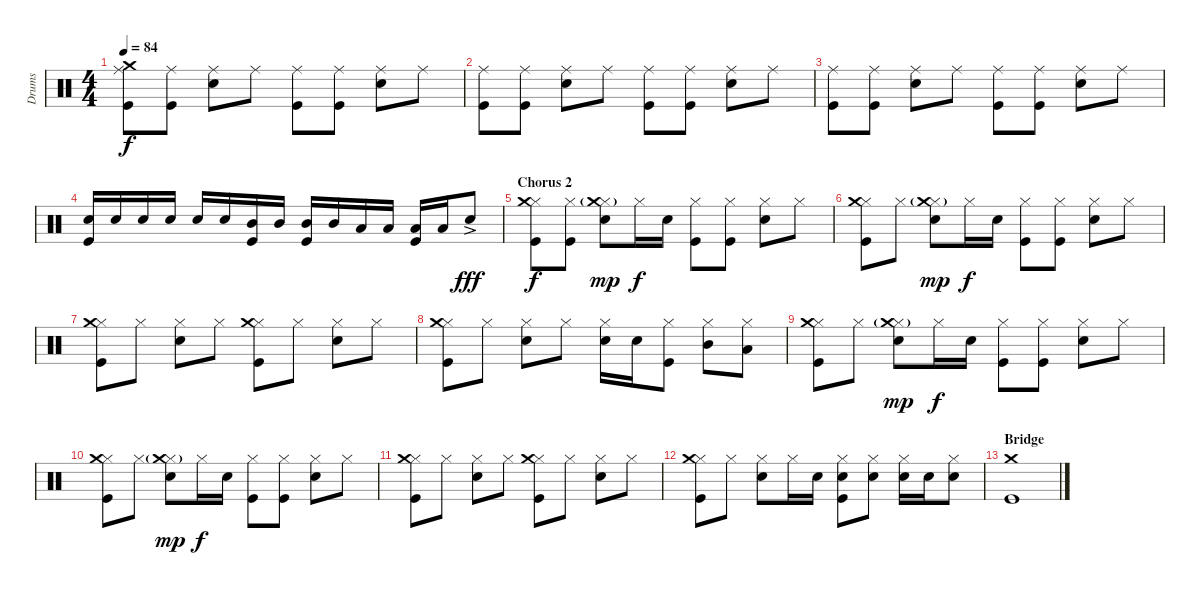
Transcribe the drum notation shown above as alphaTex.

\track ("Drums" "Drums") {instrument percussion}
\staff {score}
\articulation defaults
\ts (4 4)
\tempo 84
\clef neutral
\ks c
("Ride (middle)" "Crash medium (hit)" "Kick (hit)").8{dy f} ("Ride (middle)" "Kick (hit)").8 ("Ride (middle)" "Snare (hit) 2").8 "Ride (middle)".8 ("Ride (middle)" "Kick (hit)").8 ("Ride (middle)" "Kick (hit)").8 ("Ride (middle)" "Snare (hit) 2").8 "Ride (middle)".8 |
("Ride (middle)" "Kick (hit)").8 ("Ride (middle)" "Kick (hit)").8 ("Ride (middle)" "Snare (hit) 2").8 "Ride (middle)".8 ("Ride (middle)" "Kick (hit)").8 ("Ride (middle)" "Kick (hit)").8 ("Ride (middle)" "Snare (hit) 2").8 "Ride (middle)".8 |
("Ride (middle)" "Kick (hit)").8 ("Ride (middle)" "Kick (hit)").8 ("Ride (middle)" "Snare (hit) 2").8 "Ride (middle)".8 ("Ride (middle)" "Kick (hit)").8 ("Ride (middle)" "Kick (hit)").8 ("Ride (middle)" "Snare (hit) 2").8 "Ride (middle)".8 |
("Snare (hit) 2" "Kick (hit)").16 "Snare (hit) 2".16 "Snare (hit) 2".16 "Snare (hit) 2".16 "Snare (hit) 2".16 "Snare (hit) 2".16 ("Mid Tom (hit)" "Kick (hit)").16 "Mid Tom (hit)".16 ("Mid Tom (hit)" "Kick (hit)").16 "Mid Tom (hit)".16 "Low Tom (hit)".16 "Low Tom (hit)".16 ("Low Tom (hit)" "Kick (hit)").16 "Low Tom (hit)".16 "Snare (hit) 2"{ac}.8{dy fff} |
\section ("" "Chorus 2")
("Hi-Hat (closed)" "Crash medium (hit)" "Kick (hit)").8{dy f} ("Hi-Hat (closed)" "Kick (hit)").8 ("Hi-Hat (closed)" "Crash medium (hit)"{g} "Snare (hit) 2").8{dy mp} "Hi-Hat (closed)".16{dy f} "Snare (hit) 2".16 ("Hi-Hat (closed)" "Kick (hit)").8 ("Hi-Hat (closed)" "Kick (hit)").8 ("Hi-Hat (closed)" "Snare (hit) 2").8 "Hi-Hat (closed)".8 |
("Hi-Hat (closed)" "Crash medium (hit)" "Kick (hit)").8 "Hi-Hat (closed)".8 ("Hi-Hat (closed)" "Crash medium (hit)"{g} "Snare (hit) 2").8{dy mp} "Hi-Hat (closed)".16{dy f} "Snare (hit) 2".16 ("Hi-Hat (closed)" "Kick (hit)").8 ("Hi-Hat (closed)" "Kick (hit)").8 ("Hi-Hat (closed)" "Snare (hit) 2").8 "Hi-Hat (closed)".8 |
("Hi-Hat (closed)" "Crash medium (hit)" "Kick (hit)").8 "Hi-Hat (closed)".8 ("Hi-Hat (closed)" "Snare (hit) 2").8 "Hi-Hat (closed)".8 ("Hi-Hat (closed)" "Crash medium (hit)" "Kick (hit)").8 "Hi-Hat (closed)".8 ("Hi-Hat (closed)" "Snare (hit) 2").8 "Hi-Hat (closed)".8 |
("Hi-Hat (closed)" "Crash medium (hit)" "Kick (hit)").8 "Hi-Hat (closed)".8 ("Hi-Hat (closed)" "Snare (hit) 2").8 "Hi-Hat (closed)".8 ("Hi-Hat (closed)" "Snare (hit) 2").16 "Snare (hit) 2".16 ("Hi-Hat (closed)" "Kick (hit)").8 ("Hi-Hat (closed)" "Mid Tom (hit)").8 ("Hi-Hat (closed)" "Low Tom (hit)").8 |
("Hi-Hat (closed)" "Crash medium (hit)" "Kick (hit)").8 "Hi-Hat (closed)".8 ("Hi-Hat (closed)" "Crash medium (hit)"{g} "Snare (hit) 2").8{dy mp} "Hi-Hat (closed)".16{dy f} "Snare (hit) 2".16 ("Hi-Hat (closed)" "Kick (hit)").8 ("Hi-Hat (closed)" "Kick (hit)").8 ("Hi-Hat (closed)" "Snare (hit) 2").8 "Hi-Hat (closed)".8 |
("Hi-Hat (closed)" "Crash medium (hit)" "Kick (hit)").8 "Hi-Hat (closed)".8 ("Hi-Hat (closed)" "Crash medium (hit)"{g} "Snare (hit) 2").8{dy mp} "Hi-Hat (closed)".16{dy f} "Snare (hit) 2".16 ("Hi-Hat (closed)" "Kick (hit)").8 ("Hi-Hat (closed)" "Kick (hit)").8 ("Hi-Hat (closed)" "Snare (hit) 2").8 "Hi-Hat (closed)".8 |
("Hi-Hat (closed)" "Crash medium (hit)" "Kick (hit)").8 "Hi-Hat (closed)".8 ("Hi-Hat (closed)" "Snare (hit) 2").8 "Hi-Hat (closed)".8 ("Hi-Hat (closed)" "Crash medium (hit)" "Kick (hit)").8 "Hi-Hat (closed)".8 ("Hi-Hat (closed)" "Snare (hit) 2").8 "Hi-Hat (closed)".8 |
("Hi-Hat (closed)" "Crash medium (hit)" "Kick (hit)").8 "Hi-Hat (closed)".8 ("Hi-Hat (closed)" "Snare (hit) 2").8 "Hi-Hat (closed)".16 "Snare (hit) 2".16 ("Hi-Hat (closed)" "Snare (hit) 2" "Kick (hit)").8 ("Hi-Hat (closed)" "Snare (hit) 2").8 ("Hi-Hat (closed)" "Snare (hit) 2").16 "Snare (hit) 2".16 ("Hi-Hat (closed)" "Snare (hit) 2").8 |
\section ("" "Bridge")
("Crash medium (hit)" "Kick (hit)").1
